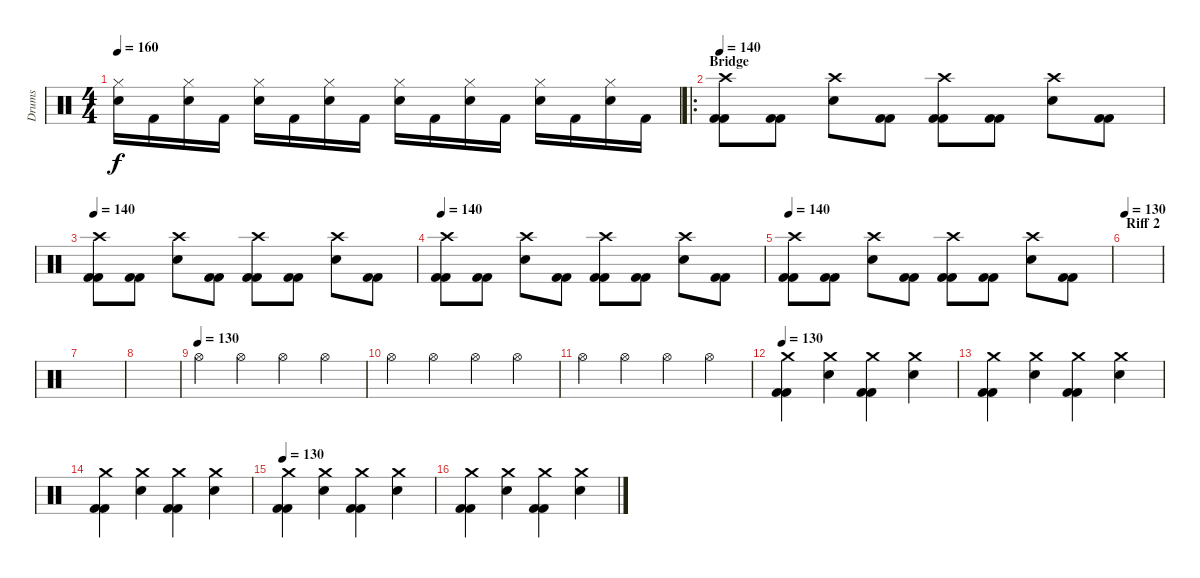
\track ("Drums" "Drums") {instrument percussion}
\staff {score}
\articulation defaults
\ts (4 4)
\tempo 160
\clef neutral
\ks c
("Hi-Hat (closed)" "Electric Snare (hit)").16{dy f} "Kick (hit) 2".16 ("Electric Snare (hit)" "Hi-Hat (closed)").16 "Kick (hit) 2".16 ("Hi-Hat (closed)" "Electric Snare (hit)").16 "Kick (hit) 2".16 ("Electric Snare (hit)" "Hi-Hat (closed)").16 "Kick (hit) 2".16 ("Hi-Hat (closed)" "Electric Snare (hit)").16 "Kick (hit) 2".16 ("Hi-Hat (closed)" "Electric Snare (hit)").16 "Kick (hit) 2".16 ("Electric Snare (hit)" "Hi-Hat (closed)").16 "Kick (hit) 2".16 ("Hi-Hat (closed)" "Electric Snare (hit)").16 "Kick (hit) 2".16 |
\ro
\section ("" "Bridge")
\tempo 140
("Kick (hit) 2" "Kick (hit) 2" "Crash high (hit)").8 ("Kick (hit) 2" "Kick (hit) 2").8 ("Electric Snare (hit)" "Crash high (hit)").8 ("Kick (hit) 2" "Kick (hit) 2").8 ("Kick (hit) 2" "Kick (hit) 2" "Crash high (hit)").8 ("Kick (hit) 2" "Kick (hit) 2").8 ("Crash high (hit)" "Electric Snare (hit)").8 ("Kick (hit) 2" "Kick (hit) 2").8 |
\tempo 140
("Kick (hit) 2" "Kick (hit) 2" "Crash high (hit)").8 ("Kick (hit) 2" "Kick (hit) 2").8 ("Electric Snare (hit)" "Crash high (hit)").8 ("Kick (hit) 2" "Kick (hit) 2").8 ("Kick (hit) 2" "Kick (hit) 2" "Crash high (hit)").8 ("Kick (hit) 2" "Kick (hit) 2").8 ("Crash high (hit)" "Electric Snare (hit)").8 ("Kick (hit) 2" "Kick (hit) 2").8 |
\tempo 140
("Kick (hit) 2" "Kick (hit) 2" "Crash high (hit)").8 ("Kick (hit) 2" "Kick (hit) 2").8 ("Electric Snare (hit)" "Crash high (hit)").8 ("Kick (hit) 2" "Kick (hit) 2").8 ("Kick (hit) 2" "Kick (hit) 2" "Crash high (hit)").8 ("Kick (hit) 2" "Kick (hit) 2").8 ("Crash high (hit)" "Electric Snare (hit)").8 ("Kick (hit) 2" "Kick (hit) 2").8 |
\tempo 140
("Kick (hit) 2" "Kick (hit) 2" "Crash high (hit)").8 ("Kick (hit) 2" "Kick (hit) 2").8 ("Electric Snare (hit)" "Crash high (hit)").8 ("Kick (hit) 2" "Kick (hit) 2").8 ("Kick (hit) 2" "Kick (hit) 2" "Crash high (hit)").8 ("Kick (hit) 2" "Kick (hit) 2").8 ("Crash high (hit)" "Electric Snare (hit)").8 ("Kick (hit) 2" "Kick (hit) 2").8 |
\section ("" "Riff 2")
\tempo 130
|
|
|
\tempo (130)
"Hi-Hat (open)".4 "Hi-Hat (open)".4 "Hi-Hat (open)".4 "Hi-Hat (open)".4 |
"Hi-Hat (open)".4 "Hi-Hat (open)".4 "Hi-Hat (open)".4 "Hi-Hat (open)".4 |
"Hi-Hat (open)".4 "Hi-Hat (open)".4 "Hi-Hat (open)".4 "Hi-Hat (open)".4 |
\tempo 130
("Crash medium (hit)" "Kick (hit) 2" "Kick (hit) 2").4 ("Electric Snare (hit)" "Crash medium (hit)").4 ("Crash medium (hit)" "Kick (hit) 2" "Kick (hit) 2").4 ("Electric Snare (hit)" "Crash medium (hit)").4 |
("Crash medium (hit)" "Kick (hit) 2" "Kick (hit) 2").4 ("Electric Snare (hit)" "Crash medium (hit)").4 ("Crash medium (hit)" "Kick (hit) 2" "Kick (hit) 2").4 ("Electric Snare (hit)" "Crash medium (hit)").4 |
("Crash medium (hit)" "Kick (hit) 2" "Kick (hit) 2").4 ("Electric Snare (hit)" "Crash medium (hit)").4 ("Crash medium (hit)" "Kick (hit) 2" "Kick (hit) 2").4 ("Electric Snare (hit)" "Crash medium (hit)").4 |
\tempo 130
("Crash medium (hit)" "Kick (hit) 2" "Kick (hit) 2").4 ("Electric Snare (hit)" "Crash medium (hit)").4 ("Crash medium (hit)" "Kick (hit) 2" "Kick (hit) 2").4 ("Electric Snare (hit)" "Crash medium (hit)").4 |
("Crash medium (hit)" "Kick (hit) 2" "Kick (hit) 2").4 ("Electric Snare (hit)" "Crash medium (hit)").4 ("Crash medium (hit)" "Kick (hit) 2" "Kick (hit) 2").4 ("Electric Snare (hit)" "Crash medium (hit)").4
